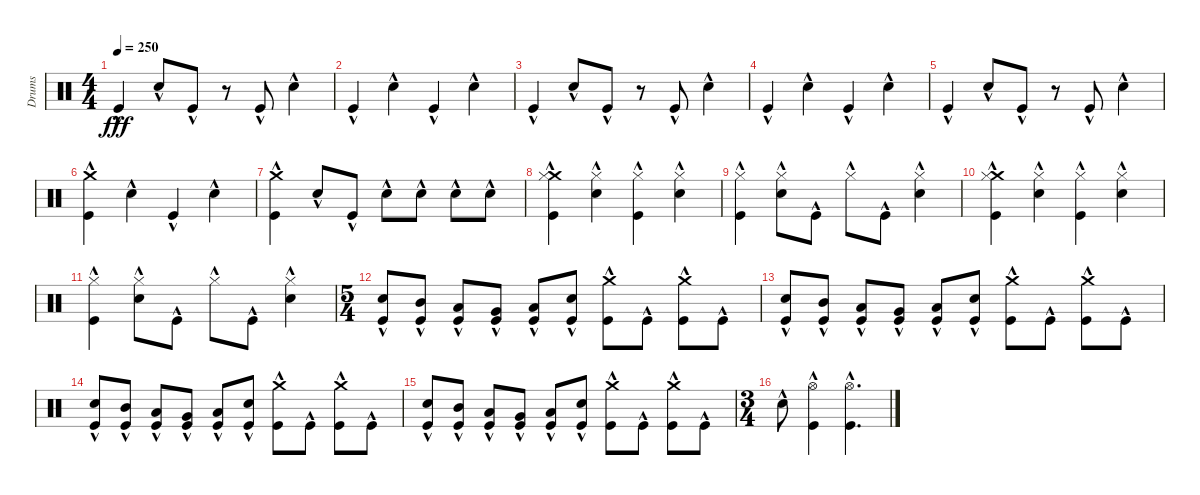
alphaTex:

\track ("Drums" "Drums") {instrument percussion}
\staff {score}
\articulation defaults
\ts (4 4)
\tempo 250
\clef neutral
\ks c "Kick (hit)"{hac}.4{dy fff} "Snare (hit) 2"{hac}.8 "Kick (hit)"{hac}.8
r.8 "Kick (hit)"{hac}.8 "Snare (hit) 2"{hac}.4 |
"Kick (hit)"{hac}.4 "Snare (hit) 2"{hac}.4 "Kick (hit)"{hac}.4 "Snare (hit) 2"{hac}.4 |
"Kick (hit)"{hac}.4 "Snare (hit) 2"{hac}.8 "Kick (hit)"{hac}.8 r.8 "Kick (hit)"{hac}.8 "Snare (hit) 2"{hac}.4 |
"Kick (hit)"{hac}.4 "Snare (hit) 2"{hac}.4 "Kick (hit)"{hac}.4 "Snare (hit) 2"{hac}.4 |
"Kick (hit)"{hac}.4 "Snare (hit) 2"{hac}.8 "Kick (hit)"{hac}.8 r.8 "Kick (hit)"{hac}.8 "Snare (hit) 2"{hac}.4 |
("Crash medium (hit)"{hac} "Kick (hit)"{hac}).4 "Snare (hit) 2"{hac}.4 "Kick (hit)"{hac}.4 "Snare (hit) 2"{hac}.4 |
("Crash medium (hit)"{hac} "Kick (hit)"{hac}).4 "Snare (hit) 2"{hac}.8 "Kick (hit)"{hac}.8 "Snare (hit) 2"{hac}.8 "Snare (hit) 2"{hac}.8 "Snare (hit) 2"{hac}.8 "Snare (hit) 2"{hac}.8 |
("Crash medium (hit)"{hac} "Hi-Hat (closed)"{hac} "Kick (hit)"{hac}).4 ("Hi-Hat (closed)"{hac} "Snare (hit) 2"{hac}).4 ("Hi-Hat (closed)"{hac} "Kick (hit)"{hac}).4 ("Hi-Hat (closed)"{hac} "Snare (hit) 2"{hac}).4 |
("Hi-Hat (closed)"{hac} "Kick (hit)"{hac}).4 ("Hi-Hat (closed)"{hac} "Snare (hit) 2"{hac}).8 "Kick (hit)"{hac}.8 "Hi-Hat (closed)"{hac}.8 "Kick (hit)"{hac}.8 ("Hi-Hat (closed)"{hac} "Snare (hit) 2"{hac}).4 |
("Crash medium (hit)"{hac} "Hi-Hat (closed)"{hac} "Kick (hit)"{hac}).4 ("Hi-Hat (closed)"{hac} "Snare (hit) 2"{hac}).4 ("Hi-Hat (closed)"{hac} "Kick (hit)"{hac}).4 ("Hi-Hat (closed)"{hac} "Snare (hit) 2"{hac}).4 |
("Hi-Hat (closed)"{hac} "Kick (hit)"{hac}).4 ("Hi-Hat (closed)"{hac} "Snare (hit) 2"{hac}).8 "Kick (hit)"{hac}.8 "Hi-Hat (closed)"{hac}.8 "Kick (hit)"{hac}.8 ("Hi-Hat (closed)"{hac} "Snare (hit) 2"{hac}).4 |
\ts (5 4)
("Snare (hit) 2"{hac} "Kick (hit)"{hac}).8 ("Mid Tom (hit)"{hac} "Kick (hit)"{hac}).8 ("Low Tom (hit)"{hac} "Kick (hit)"{hac}).8 ("Very Low Tom (hit)"{hac} "Kick (hit)"{hac}).8 ("Low Floor Tom (hit)"{hac} "Kick (hit)"{hac}).8 ("Snare (hit) 2"{hac} "Kick (hit)"{hac}).8 ("Crash medium (hit)"{hac} "Kick (hit)"{hac}).8 "Kick (hit)"{hac}.8 ("Crash medium (hit)"{hac} "Kick (hit)"{hac}).8 "Kick (hit)"{hac}.8 |
("Snare (hit) 2"{hac} "Kick (hit)"{hac}).8 ("Mid Tom (hit)"{hac} "Kick (hit)"{hac}).8 ("Low Tom (hit)"{hac} "Kick (hit)"{hac}).8 ("Very Low Tom (hit)"{hac} "Kick (hit)"{hac}).8 ("Low Floor Tom (hit)"{hac} "Kick (hit)"{hac}).8 ("Snare (hit) 2"{hac} "Kick (hit)"{hac}).8 ("Crash medium (hit)"{hac} "Kick (hit)"{hac}).8 "Kick (hit)"{hac}.8 ("Crash medium (hit)"{hac} "Kick (hit)"{hac}).8 "Kick (hit)"{hac}.8 |
("Snare (hit) 2"{hac} "Kick (hit)"{hac}).8 ("Mid Tom (hit)"{hac} "Kick (hit)"{hac}).8 ("Low Tom (hit)"{hac} "Kick (hit)"{hac}).8 ("Very Low Tom (hit)"{hac} "Kick (hit)"{hac}).8 ("Low Floor Tom (hit)"{hac} "Kick (hit)"{hac}).8 ("Snare (hit) 2"{hac} "Kick (hit)"{hac}).8 ("Crash medium (hit)"{hac} "Kick (hit)"{hac}).8 "Kick (hit)"{hac}.8 ("Crash medium (hit)"{hac} "Kick (hit)"{hac}).8 "Kick (hit)"{hac}.8 |
("Snare (hit) 2"{hac} "Kick (hit)"{hac}).8 ("Mid Tom (hit)"{hac} "Kick (hit)"{hac}).8 ("Low Tom (hit)"{hac} "Kick (hit)"{hac}).8 ("Very Low Tom (hit)"{hac} "Kick (hit)"{hac}).8 ("Low Floor Tom (hit)"{hac} "Kick (hit)"{hac}).8 ("Snare (hit) 2"{hac} "Kick (hit)"{hac}).8 ("Crash medium (hit)"{hac} "Kick (hit)"{hac}).8 "Kick (hit)"{hac}.8 ("Crash medium (hit)"{hac} "Kick (hit)"{hac}).8 "Kick (hit)"{hac}.8 |
\ts (3 4)
"Snare (hit) 2"{hac}.8 ("Hi-Hat (open)"{hac} "Kick (hit)"{hac}).4 ("Hi-Hat (open)"{hac} "Kick (hit)"{hac}).4{d}
